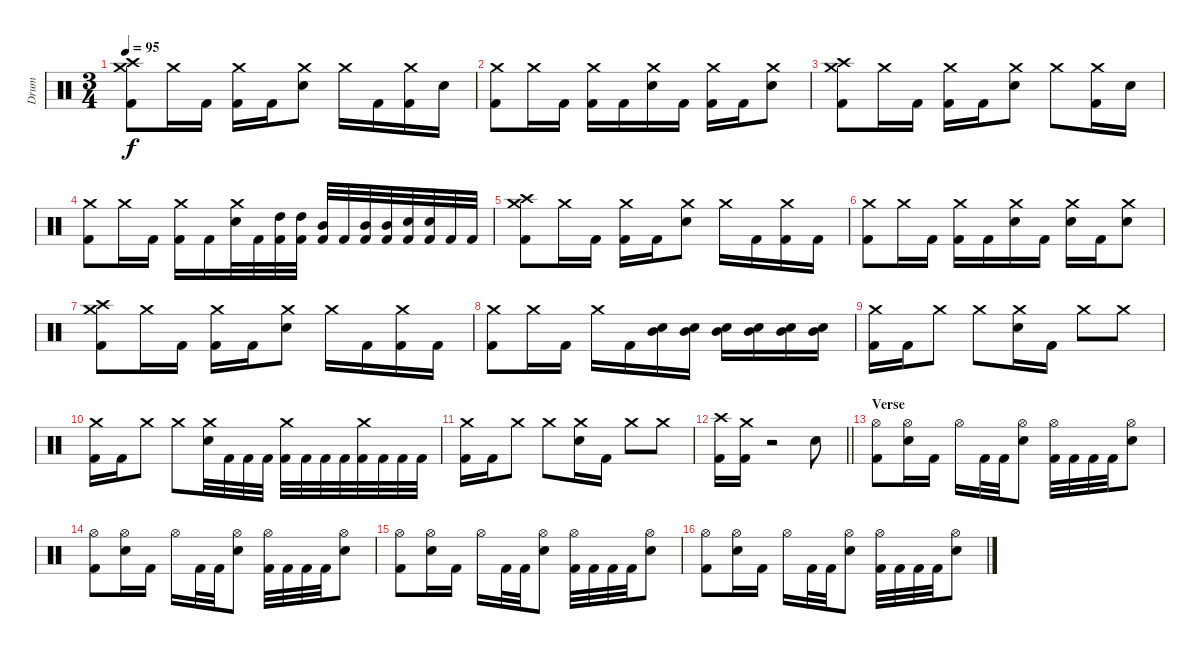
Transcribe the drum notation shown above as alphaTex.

\track ("Drum" "Drum") {instrument percussion}
\staff {score}
\articulation defaults
\ts (3 4)
\tempo 95
\clef neutral
\ks c
("Crash medium (hit)" "Crash high (hit)" "Kick (hit) 2").8{dy f} "Crash medium (hit)".16 "Kick (hit) 2".16 ("Crash medium (hit)" "Kick (hit) 2").16 "Kick (hit) 2".16 ("Crash medium (hit)" "Electric Snare (hit)").8 "Crash medium (hit)".16 "Kick (hit) 2".16 ("Crash medium (hit)" "Kick (hit) 2").16 "Electric Snare (hit)".16 |
("Crash medium (hit)" "Kick (hit) 2").8 "Crash medium (hit)".16 "Kick (hit) 2".16 ("Crash medium (hit)" "Kick (hit) 2").16 "Kick (hit) 2".16 ("Crash medium (hit)" "Electric Snare (hit)").16 "Kick (hit) 2".16 ("Crash medium (hit)" "Kick (hit) 2").16 "Kick (hit) 2".16 ("Crash medium (hit)" "Electric Snare (hit)").8 |
("Crash high (hit)" "Crash medium (hit)" "Kick (hit) 2").8 "Crash medium (hit)".16 "Kick (hit) 2".16 ("Crash medium (hit)" "Kick (hit) 2").16 "Kick (hit) 2".16 ("Crash medium (hit)" "Electric Snare (hit)").8 "Crash medium (hit)".8 ("Crash medium (hit)" "Kick (hit) 2").16 "Electric Snare (hit)".16 |
("Crash medium (hit)" "Kick (hit) 2").8 "Crash medium (hit)".16 "Kick (hit) 2".16 ("Crash medium (hit)" "Kick (hit) 2").16 "Kick (hit) 2".16 ("Crash medium (hit)" "Electric Snare (hit)").32 "Kick (hit) 2".32 ("High Tom (hit)" "Kick (hit) 2").32 ("High Tom (hit)" "Kick (hit) 2").32 ("Mid Tom (hit)" "Kick (hit) 2").32 "Kick (hit) 2".32 ("Mid Tom (hit)" "Kick (hit) 2").32 ("Mid Tom (hit)" "Kick (hit) 2").32 ("Electric Snare (hit)" "Kick (hit) 2").32 ("Electric Snare (hit)" "Kick (hit) 2").32 "Kick (hit) 2".32 "Kick (hit) 2".32 |
("Crash medium (hit)" "Crash high (hit)" "Kick (hit) 2").8 "Crash medium (hit)".16 "Kick (hit) 2".16 ("Crash medium (hit)" "Kick (hit) 2").16 "Kick (hit) 2".16 ("Crash medium (hit)" "Electric Snare (hit)").8 "Crash medium (hit)".16 "Kick (hit) 2".16 ("Crash medium (hit)" "Kick (hit) 2").16 "Kick (hit) 2".16 |
("Crash medium (hit)" "Kick (hit) 2").8 "Crash medium (hit)".16 "Kick (hit) 2".16 ("Crash medium (hit)" "Kick (hit) 2").16 "Kick (hit) 2".16 ("Crash medium (hit)" "Electric Snare (hit)").16 "Kick (hit) 2".16 ("Crash medium (hit)" "Electric Snare (hit)").16 "Kick (hit) 2".16 ("Crash medium (hit)" "Electric Snare (hit)").8 |
("Crash high (hit)" "Crash medium (hit)" "Kick (hit) 2").8 "Crash medium (hit)".16 "Kick (hit) 2".16 ("Crash medium (hit)" "Kick (hit) 2").16 "Kick (hit) 2".16 ("Crash medium (hit)" "Electric Snare (hit)").8 "Crash medium (hit)".16 "Kick (hit) 2".16 ("Crash medium (hit)" "Kick (hit) 2").16 "Kick (hit) 2".16 |
("Crash medium (hit)" "Kick (hit) 2").8 "Crash medium (hit)".16 "Kick (hit) 2".16 "Crash medium (hit)".16 "Kick (hit) 2".16 ("Electric Snare (hit)" "Mid Tom (hit)").16 ("Electric Snare (hit)" "Mid Tom (hit)").16 ("Electric Snare (hit)" "Mid Tom (hit)").16 ("Electric Snare (hit)" "Mid Tom (hit)").16 ("Electric Snare (hit)" "Mid Tom (hit)").16 ("Electric Snare (hit)" "Mid Tom (hit)").16 |
("Crash medium (hit)" "Kick (hit) 2").16 "Kick (hit) 2".16 "Crash medium (hit)".8 "Crash medium (hit)".8 ("Crash medium (hit)" "Electric Snare (hit)").16 "Kick (hit) 2".16 "Crash medium (hit)".8 "Crash medium (hit)".8 |
("Crash medium (hit)" "Kick (hit) 2").16 "Kick (hit) 2".16 "Crash medium (hit)".8 "Crash medium (hit)".8 ("Crash medium (hit)" "Electric Snare (hit)").32 "Kick (hit) 2".32 "Kick (hit) 2".32 "Kick (hit) 2".32 ("Crash medium (hit)" "Kick (hit) 2").32 "Kick (hit) 2".32 "Kick (hit) 2".32 "Kick (hit) 2".32 ("Crash medium (hit)" "Kick (hit) 2").32 "Kick (hit) 2".32 "Kick (hit) 2".32 "Kick (hit) 2".32 |
("Crash medium (hit)" "Kick (hit) 2").16 "Kick (hit) 2".16 "Crash medium (hit)".8 "Crash medium (hit)".8 ("Crash medium (hit)" "Electric Snare (hit)").16 "Kick (hit) 2".16 "Crash medium (hit)".8 "Crash medium (hit)".8 |
\barLineRight lightlight
("Crash high (hit)" "Kick (hit) 2").16 ("Crash medium (hit)" "Kick (hit) 2").16 r.2 "Electric Snare (hit)".8 |
\section ("" "Verse")
("Hi-Hat (open)" "Kick (hit) 2").8 ("Hi-Hat (open)" "Electric Snare (hit)").16 "Kick (hit) 2".16 "Hi-Hat (open)".16 "Kick (hit) 2".32 "Kick (hit) 2".32 ("Hi-Hat (open)" "Electric Snare (hit)").8 ("Hi-Hat (open)" "Kick (hit) 2").32 "Kick (hit) 2".32 "Kick (hit) 2".32 "Kick (hit) 2".32 ("Hi-Hat (open)" "Electric Snare (hit)").8 |
("Hi-Hat (open)" "Kick (hit) 2").8 ("Hi-Hat (open)" "Electric Snare (hit)").16 "Kick (hit) 2".16 "Hi-Hat (open)".16 "Kick (hit) 2".32 "Kick (hit) 2".32 ("Hi-Hat (open)" "Electric Snare (hit)").8 ("Hi-Hat (open)" "Kick (hit) 2").32 "Kick (hit) 2".32 "Kick (hit) 2".32 "Kick (hit) 2".32 ("Hi-Hat (open)" "Electric Snare (hit)").8 |
("Hi-Hat (open)" "Kick (hit) 2").8 ("Hi-Hat (open)" "Electric Snare (hit)").16 "Kick (hit) 2".16 "Hi-Hat (open)".16 "Kick (hit) 2".32 "Kick (hit) 2".32 ("Hi-Hat (open)" "Electric Snare (hit)").8 ("Hi-Hat (open)" "Kick (hit) 2").32 "Kick (hit) 2".32 "Kick (hit) 2".32 "Kick (hit) 2".32 ("Hi-Hat (open)" "Electric Snare (hit)").8 |
("Hi-Hat (open)" "Kick (hit) 2").8 ("Hi-Hat (open)" "Electric Snare (hit)").16 "Kick (hit) 2".16 "Hi-Hat (open)".16 "Kick (hit) 2".32 "Kick (hit) 2".32 ("Hi-Hat (open)" "Electric Snare (hit)").8 ("Hi-Hat (open)" "Kick (hit) 2").32 "Kick (hit) 2".32 "Kick (hit) 2".32 "Kick (hit) 2".32 ("Hi-Hat (open)" "Electric Snare (hit)").8
